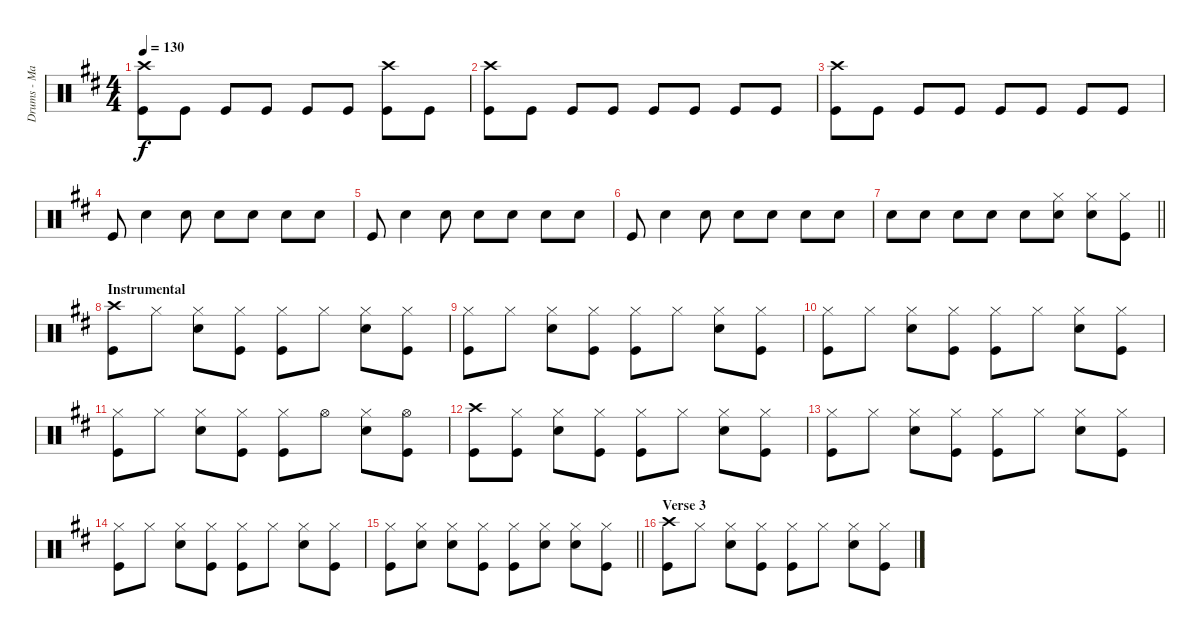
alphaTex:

\track ("Drums - Matt Helders" "Drums - Ma") {instrument percussion}
\staff {score}
\articulation defaults
\ts (4 4)
\tempo 130
\clef neutral
\ks d
("Crash high (hit)" "Kick (hit)").8{dy f} "Kick (hit)".8 "Kick (hit)".8 "Kick (hit)".8 "Kick (hit)".8 "Kick (hit)".8 ("Crash high (hit)" "Kick (hit)").8 "Kick (hit)".8 |
("Crash high (hit)" "Kick (hit)").8 "Kick (hit)".8 "Kick (hit)".8 "Kick (hit)".8 "Kick (hit)".8 "Kick (hit)".8 "Kick (hit)".8 "Kick (hit)".8 |
("Crash high (hit)" "Kick (hit)").8 "Kick (hit)".8 "Kick (hit)".8 "Kick (hit)".8 "Kick (hit)".8 "Kick (hit)".8 "Kick (hit)".8 "Kick (hit)".8 |
"Kick (hit)".8 "Snare (hit) 2".4 "Snare (hit) 2".8 "Snare (hit) 2".8 "Snare (hit) 2".8 "Snare (hit) 2".8 "Snare (hit) 2".8 |
"Kick (hit)".8 "Snare (hit) 2".4 "Snare (hit) 2".8 "Snare (hit) 2".8 "Snare (hit) 2".8 "Snare (hit) 2".8 "Snare (hit) 2".8 |
"Kick (hit)".8 "Snare (hit) 2".4 "Snare (hit) 2".8 "Snare (hit) 2".8 "Snare (hit) 2".8 "Snare (hit) 2".8 "Snare (hit) 2".8 |
\barLineRight lightlight "Snare (hit) 2".8 "Snare (hit) 2".8 "Snare (hit) 2".8 "Snare (hit) 2".8 "Snare (hit) 2".8
("Hi-Hat (closed)" "Snare (hit) 2").8 ("Hi-Hat (closed)" "Snare (hit) 2").8 ("Hi-Hat (closed)" "Kick (hit)").8 |
\section ("" "Instrumental")
("Crash high (hit)" "Kick (hit)").8 "Hi-Hat (closed)".8 ("Hi-Hat (closed)" "Snare (hit) 2").8 ("Hi-Hat (closed)" "Kick (hit)").8 ("Hi-Hat (closed)" "Kick (hit)").8 "Hi-Hat (closed)".8 ("Hi-Hat (closed)" "Snare (hit) 2").8 ("Hi-Hat (closed)" "Kick (hit)").8 |
("Hi-Hat (closed)" "Kick (hit)").8 "Hi-Hat (closed)".8 ("Hi-Hat (closed)" "Snare (hit) 2").8 ("Hi-Hat (closed)" "Kick (hit)").8 ("Hi-Hat (closed)" "Kick (hit)").8 "Hi-Hat (closed)".8 ("Hi-Hat (closed)" "Snare (hit) 2").8 ("Hi-Hat (closed)" "Kick (hit)").8 |
("Hi-Hat (closed)" "Kick (hit)").8 "Hi-Hat (closed)".8 ("Hi-Hat (closed)" "Snare (hit) 2").8 ("Hi-Hat (closed)" "Kick (hit)").8 ("Hi-Hat (closed)" "Kick (hit)").8 "Hi-Hat (closed)".8 ("Hi-Hat (closed)" "Snare (hit) 2").8 ("Hi-Hat (closed)" "Kick (hit)").8 |
("Hi-Hat (closed)" "Kick (hit)").8 "Hi-Hat (closed)".8 ("Hi-Hat (closed)" "Snare (hit) 2").8 ("Hi-Hat (closed)" "Kick (hit)").8 ("Hi-Hat (closed)" "Kick (hit)").8 "Hi-Hat (open)".8 ("Hi-Hat (closed)" "Snare (hit) 2").8 ("Hi-Hat (open)" "Kick (hit)").8 |
("Crash high (hit)" "Kick (hit)").8 ("Hi-Hat (closed)" "Kick (hit)").8 ("Hi-Hat (closed)" "Snare (hit) 2").8 ("Hi-Hat (closed)" "Kick (hit)").8 ("Hi-Hat (closed)" "Kick (hit)").8 "Hi-Hat (closed)".8 ("Hi-Hat (closed)" "Snare (hit) 2").8 ("Hi-Hat (closed)" "Kick (hit)").8 |
("Hi-Hat (closed)" "Kick (hit)").8 "Hi-Hat (closed)".8 ("Hi-Hat (closed)" "Snare (hit) 2").8 ("Hi-Hat (closed)" "Kick (hit)").8 ("Hi-Hat (closed)" "Kick (hit)").8 "Hi-Hat (closed)".8 ("Hi-Hat (closed)" "Snare (hit) 2").8 ("Hi-Hat (closed)" "Kick (hit)").8 |
("Hi-Hat (closed)" "Kick (hit)").8 "Hi-Hat (closed)".8 ("Hi-Hat (closed)" "Snare (hit) 2").8 ("Hi-Hat (closed)" "Kick (hit)").8 ("Hi-Hat (closed)" "Kick (hit)").8 "Hi-Hat (closed)".8 ("Hi-Hat (closed)" "Snare (hit) 2").8 ("Hi-Hat (closed)" "Kick (hit)").8 |
\barLineRight lightlight
("Hi-Hat (closed)" "Kick (hit)").8 ("Hi-Hat (closed)" "Snare (hit) 2").8 ("Hi-Hat (closed)" "Snare (hit) 2").8 ("Hi-Hat (closed)" "Kick (hit)").8 ("Hi-Hat (closed)" "Kick (hit)").8 ("Hi-Hat (closed)" "Snare (hit) 2").8 ("Hi-Hat (closed)" "Snare (hit) 2").8 ("Hi-Hat (closed)" "Kick (hit)").8 |
\section ("" "Verse 3")
("Crash high (hit)" "Kick (hit)").8 "Hi-Hat (closed)".8 ("Hi-Hat (closed)" "Snare (hit) 2").8 ("Hi-Hat (closed)" "Kick (hit)").8 ("Hi-Hat (closed)" "Kick (hit)").8 "Hi-Hat (closed)".8 ("Hi-Hat (closed)" "Snare (hit) 2").8 ("Hi-Hat (closed)" "Kick (hit)").8
